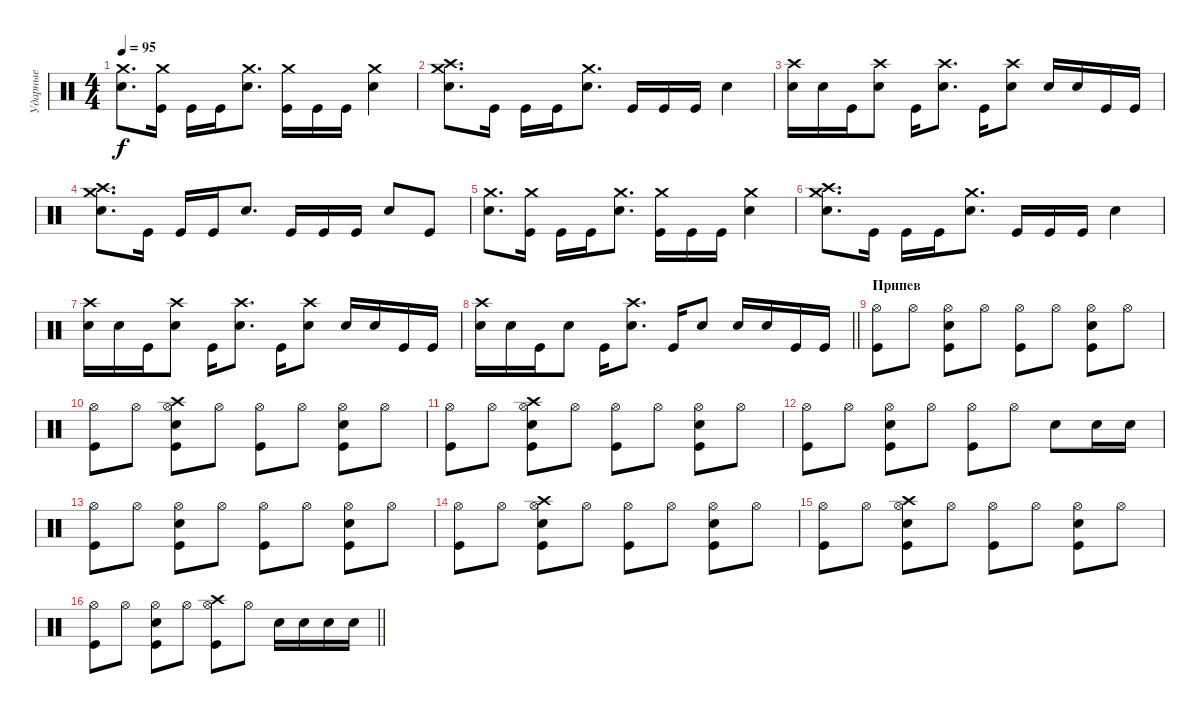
\track ("Ударные" "Ударные") {instrument percussion}
\staff {score}
\articulation defaults
\ts (4 4)
\tempo 95
\clef neutral
\ks c
("Crash medium (hit)" "Snare (hit) 2").8{d dy f} ("Crash medium (hit)" "Kick (hit)").16 "Kick (hit)".16 "Kick (hit)".16 ("Crash medium (hit)" "Snare (hit) 2").8{d} ("Crash medium (hit)" "Kick (hit)").16 "Kick (hit)".16 "Kick (hit)".16 ("Crash medium (hit)" "Snare (hit) 2").4 |
("Crash high (hit)" "Snare (hit) 2" "Crash medium (hit)").8{d} "Kick (hit)".16 "Kick (hit)".16 "Kick (hit)".16 ("Crash medium (hit)" "Snare (hit) 2").8{d} "Kick (hit)".16 "Kick (hit)".16 "Kick (hit)".16 "Snare (hit) 2".4 |
("Snare (hit) 2" "Crash high (hit)").16 "Snare (hit) 2".16 "Kick (hit)".16 ("Electric Snare (hit)" "Crash high (hit)").8 "Kick (hit)".16 ("Electric Snare (hit)" "Crash high (hit)").8{d} "Kick (hit)".16 ("Electric Snare (hit)" "Crash high (hit)").8 "Snare (hit) 2".16 "Snare (hit) 2".16 "Kick (hit)".16 "Kick (hit)".16 |
("Crash high (hit)" "Snare (hit) 2" "Crash medium (hit)").8{d volume 15} "Kick (hit)".16 "Kick (hit)".16 "Kick (hit)".16 "Snare (hit) 2".8{d} "Kick (hit)".16 "Kick (hit)".16 "Kick (hit)".16 "Snare (hit) 2".8 "Kick (hit)".8 |
("Crash medium (hit)" "Snare (hit) 2").8{d} ("Crash medium (hit)" "Kick (hit)").16 "Kick (hit)".16 "Kick (hit)".16 ("Crash medium (hit)" "Snare (hit) 2").8{d} ("Crash medium (hit)" "Kick (hit)").16 "Kick (hit)".16 "Kick (hit)".16 ("Crash medium (hit)" "Snare (hit) 2").4 |
("Crash high (hit)" "Snare (hit) 2" "Crash medium (hit)").8{d} "Kick (hit)".16 "Kick (hit)".16 "Kick (hit)".16 ("Crash medium (hit)" "Snare (hit) 2").8{d} "Kick (hit)".16 "Kick (hit)".16 "Kick (hit)".16 "Snare (hit) 2".4 |
("Snare (hit) 2" "Crash high (hit)").16 "Snare (hit) 2".16 "Kick (hit)".16 ("Electric Snare (hit)" "Crash high (hit)").8 "Kick (hit)".16 ("Electric Snare (hit)" "Crash high (hit)").8{d} "Kick (hit)".16 ("Electric Snare (hit)" "Crash high (hit)").8 "Snare (hit) 2".16 "Snare (hit) 2".16 "Kick (hit)".16 "Kick (hit)".16 |
\barLineRight lightlight
("Snare (hit) 2" "Crash high (hit)").16 "Snare (hit) 2".16 "Kick (hit)".16 "Electric Snare (hit)".8 "Kick (hit)".16 ("Electric Snare (hit)" "Crash high (hit)").8{d} "Kick (hit)".16 "Electric Snare (hit)".8 "Snare (hit) 2".16 "Snare (hit) 2".16 "Kick (hit)".16 "Kick (hit)".16 |
\section ("" "Припев")
("Hi-Hat (open)" "Kick (hit)").8 "Hi-Hat (open)".8 ("Electric Snare (hit)" "Hi-Hat (open)" "Kick (hit)").8 "Hi-Hat (open)".8 ("Hi-Hat (open)" "Kick (hit)").8 "Hi-Hat (open)".8 ("Electric Snare (hit)" "Hi-Hat (open)" "Kick (hit)").8 "Hi-Hat (open)".8 |
("Hi-Hat (open)" "Kick (hit)").8 "Hi-Hat (open)".8 ("Electric Snare (hit)" "Crash high (hit)" "Hi-Hat (open)" "Kick (hit)").8 "Hi-Hat (open)".8 ("Hi-Hat (open)" "Kick (hit)").8 "Hi-Hat (open)".8 ("Electric Snare (hit)" "Hi-Hat (open)" "Kick (hit)").8 "Hi-Hat (open)".8 |
("Hi-Hat (open)" "Kick (hit)").8 "Hi-Hat (open)".8 ("Electric Snare (hit)" "Crash high (hit)" "Hi-Hat (open)" "Kick (hit)").8 "Hi-Hat (open)".8 ("Hi-Hat (open)" "Kick (hit)").8 "Hi-Hat (open)".8 ("Electric Snare (hit)" "Hi-Hat (open)" "Kick (hit)").8 "Hi-Hat (open)".8 |
("Hi-Hat (open)" "Kick (hit)").8 "Hi-Hat (open)".8 ("Electric Snare (hit)" "Hi-Hat (open)" "Kick (hit)").8 "Hi-Hat (open)".8 ("Hi-Hat (open)" "Kick (hit)").8 "Hi-Hat (open)".8 "Electric Snare (hit)".8 "Electric Snare (hit)".16 "Electric Snare (hit)".16 |
("Hi-Hat (open)" "Kick (hit)").8 "Hi-Hat (open)".8 ("Electric Snare (hit)" "Hi-Hat (open)" "Kick (hit)").8 "Hi-Hat (open)".8 ("Hi-Hat (open)" "Kick (hit)").8 "Hi-Hat (open)".8 ("Electric Snare (hit)" "Hi-Hat (open)" "Kick (hit)").8 "Hi-Hat (open)".8 |
("Hi-Hat (open)" "Kick (hit)").8 "Hi-Hat (open)".8 ("Electric Snare (hit)" "Crash high (hit)" "Hi-Hat (open)" "Kick (hit)").8 "Hi-Hat (open)".8 ("Hi-Hat (open)" "Kick (hit)").8 "Hi-Hat (open)".8 ("Electric Snare (hit)" "Hi-Hat (open)" "Kick (hit)").8 "Hi-Hat (open)".8 |
("Hi-Hat (open)" "Kick (hit)").8 "Hi-Hat (open)".8 ("Electric Snare (hit)" "Crash high (hit)" "Hi-Hat (open)" "Kick (hit)").8 "Hi-Hat (open)".8 ("Hi-Hat (open)" "Kick (hit)").8 "Hi-Hat (open)".8 ("Electric Snare (hit)" "Hi-Hat (open)" "Kick (hit)").8 "Hi-Hat (open)".8 |
\barLineRight lightlight
("Hi-Hat (open)" "Kick (hit)").8 "Hi-Hat (open)".8 ("Electric Snare (hit)" "Hi-Hat (open)" "Kick (hit)").8 "Hi-Hat (open)".8 ("Crash high (hit)" "Hi-Hat (open)" "Kick (hit)").8 "Hi-Hat (open)".8 "Electric Snare (hit)".16 "Electric Snare (hit)".16 "Electric Snare (hit)".16 "Electric Snare (hit)".16
